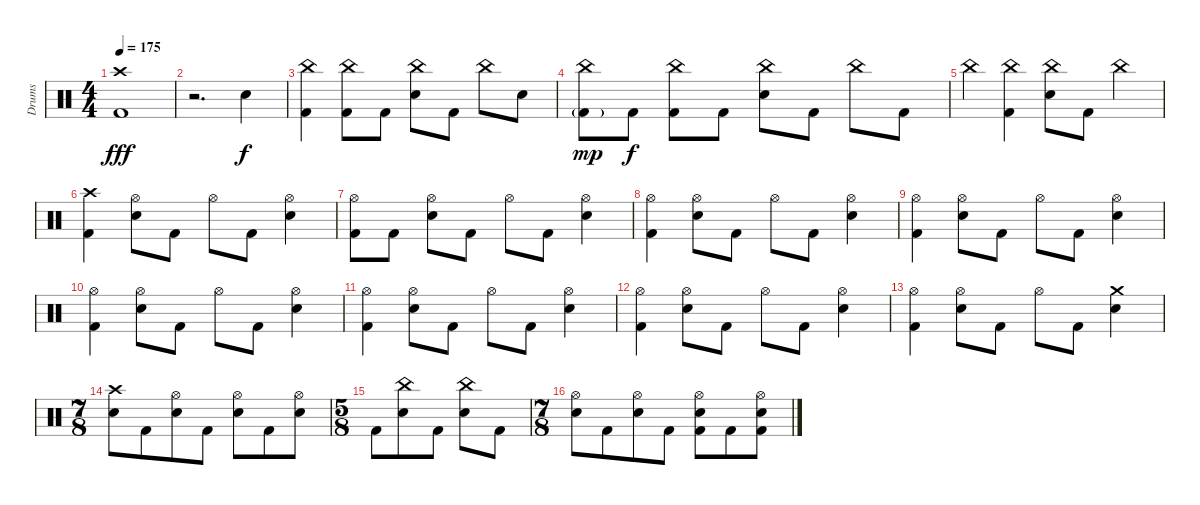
\track ("Drums" "Drums") {instrument percussion}
\staff {score}
\articulation defaults
\ts (4 4)
\tempo 175
\clef neutral
\ks c
("Crash high (hit)" "Kick (hit) 2").1{dy fff} |
r.2{d} "Electric Snare (hit)".4{dy f} |
("China (hit)" "Kick (hit) 2").4 ("China (hit)" "Kick (hit) 2").8 "Kick (hit) 2".8 ("China (hit)" "Electric Snare (hit)").8 "Kick (hit) 2".8 "China (hit)".8 "Electric Snare (hit)".8 |
("China (hit)" "Kick (hit) 2"{g}).8{dy mp} "Kick (hit) 2".8{dy f} ("China (hit)" "Kick (hit) 2").8 "Kick (hit) 2".8 ("China (hit)" "Electric Snare (hit)").8 "Kick (hit) 2".8 "China (hit)".8 "Kick (hit) 2".8 |
"China (hit)".4 ("China (hit)" "Kick (hit) 2").4 ("China (hit)" "Electric Snare (hit)").8 "Kick (hit) 2".8 "China (hit)".4 |
("Crash high (hit)" "Kick (hit) 2").4 ("Hi-Hat (open)" "Electric Snare (hit)").8 "Kick (hit) 2".8 "Hi-Hat (open)".8 "Kick (hit) 2".8 ("Hi-Hat (open)" "Electric Snare (hit)").4 |
("Hi-Hat (open)" "Kick (hit) 2").8 "Kick (hit) 2".8 ("Hi-Hat (open)" "Electric Snare (hit)").8 "Kick (hit) 2".8 "Hi-Hat (open)".8 "Kick (hit) 2".8 ("Hi-Hat (open)" "Electric Snare (hit)").4 |
("Hi-Hat (open)" "Kick (hit) 2").4 ("Hi-Hat (open)" "Electric Snare (hit)").8 "Kick (hit) 2".8 "Hi-Hat (open)".8 "Kick (hit) 2".8 ("Hi-Hat (open)" "Electric Snare (hit)").4 |
("Hi-Hat (open)" "Kick (hit) 2").4 ("Hi-Hat (open)" "Electric Snare (hit)").8 "Kick (hit) 2".8 "Hi-Hat (open)".8 "Kick (hit) 2".8 ("Hi-Hat (open)" "Electric Snare (hit)").4 |
("Hi-Hat (open)" "Kick (hit) 2").4 ("Hi-Hat (open)" "Electric Snare (hit)").8 "Kick (hit) 2".8 "Hi-Hat (open)".8 "Kick (hit) 2".8 ("Hi-Hat (open)" "Electric Snare (hit)").4 |
("Hi-Hat (open)" "Kick (hit) 2").4 ("Hi-Hat (open)" "Electric Snare (hit)").8 "Kick (hit) 2".8 "Hi-Hat (open)".8 "Kick (hit) 2".8 ("Hi-Hat (open)" "Electric Snare (hit)").4 |
("Hi-Hat (open)" "Kick (hit) 2").4 ("Hi-Hat (open)" "Electric Snare (hit)").8 "Kick (hit) 2".8 "Hi-Hat (open)".8 "Kick (hit) 2".8 ("Hi-Hat (open)" "Electric Snare (hit)").4 |
("Hi-Hat (open)" "Kick (hit) 2").4 ("Hi-Hat (open)" "Electric Snare (hit)").8 "Kick (hit) 2".8 "Hi-Hat (open)".8 "Kick (hit) 2".8 ("Crash medium (hit)" "Electric Snare (hit)").4 |
\ts (7 8)
("Crash high (hit)" "Electric Snare (hit)").8 "Kick (hit) 2".8 ("Hi-Hat (open)" "Electric Snare (hit)").8 "Kick (hit) 2".8 ("Hi-Hat (open)" "Electric Snare (hit)").8 "Kick (hit) 2".8 ("Hi-Hat (open)" "Electric Snare (hit)").8 |
\ts (5 8)
"Kick (hit) 2".8 ("China (hit)" "Electric Snare (hit)").8 "Kick (hit) 2".8 ("China (hit)" "Electric Snare (hit)").8 "Kick (hit) 2".8 |
\ts (7 8)
("Hi-Hat (open)" "Electric Snare (hit)").8 "Kick (hit) 2".8 ("Hi-Hat (open)" "Electric Snare (hit)").8 "Kick (hit) 2".8 ("Hi-Hat (open)" "Electric Snare (hit)" "Kick (hit) 2").8 "Kick (hit) 2".8 ("Hi-Hat (open)" "Electric Snare (hit)" "Kick (hit) 2").8
